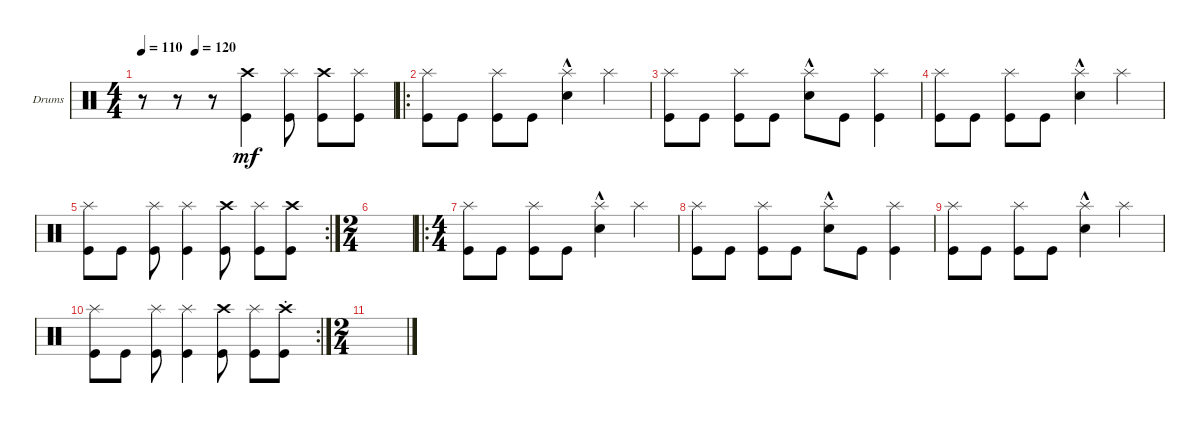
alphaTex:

\bracketExtendMode groupsimilarinstruments
\firstSystemTrackNameOrientation horizontal
\otherSystemsTrackNameOrientation horizontal
\track ("Drumkit" "Drums") {instrument percussion}
\staff {score}
\articulation defaults
\ts (4 4)
\tempo 110
\tempo (120 0.2125)
\clef neutral
\ks c
r.8{dy mf} r.8 r.8 ("Kick (hit)" "Crash high (hit)").4 ("Kick (hit)" "Splash (hit)").8 ("Kick (hit)" "Crash high (hit)").8 ("Kick (hit)" "Splash (hit)").8 |
\ro
("Kick (hit)" "Splash (hit)").8 "Kick (hit)".8 ("Kick (hit)" "Splash (hit)").8 "Kick (hit)".8 ("Splash (hit)" "Snare (hit) 2"{hac}).4 "Splash (hit)".4 |
("Kick (hit)" "Splash (hit)").8 "Kick (hit)".8 ("Kick (hit)" "Splash (hit)").8 "Kick (hit)".8 ("Splash (hit)" "Snare (hit) 2"{hac}).8 "Kick (hit)".8 ("Kick (hit)" "Splash (hit)").4 |
("Kick (hit)" "Splash (hit)").8 "Kick (hit)".8 ("Kick (hit)" "Splash (hit)").8 "Kick (hit)".8 ("Splash (hit)" "Snare (hit) 2"{hac}).4 "Splash (hit)".4 |
\rc 2
("Kick (hit)" "Splash (hit)").8 "Kick (hit)".8 ("Kick (hit)" "Splash (hit)").8 ("Kick (hit)" "Splash (hit)").4 ("Kick (hit)" "Crash high (hit)").8 ("Kick (hit)" "Splash (hit)").8 ("Kick (hit)" "Crash high (hit)").8 |
\ts (2 4)
|
\ro
\ts (4 4)
("Kick (hit)" "Splash (hit)").8 "Kick (hit)".8 ("Kick (hit)" "Splash (hit)").8 "Kick (hit)".8 ("Splash (hit)" "Snare (hit) 2"{hac}).4 "Splash (hit)".4 |
("Kick (hit)" "Splash (hit)").8 "Kick (hit)".8 ("Kick (hit)" "Splash (hit)").8 "Kick (hit)".8 ("Splash (hit)" "Snare (hit) 2"{hac}).8 "Kick (hit)".8 ("Kick (hit)" "Splash (hit)").4 |
("Kick (hit)" "Splash (hit)").8 "Kick (hit)".8 ("Kick (hit)" "Splash (hit)").8 "Kick (hit)".8 ("Splash (hit)" "Snare (hit) 2"{hac}).4 "Splash (hit)".4 |
\rc 2
("Kick (hit)" "Splash (hit)").8 "Kick (hit)".8 ("Kick (hit)" "Splash (hit)").8 ("Kick (hit)" "Splash (hit)").4 ("Kick (hit)" "Crash high (hit)").8 ("Kick (hit)" "Splash (hit)").8 ("Kick (hit)" "Crash high (hit)"{st}).8 |
\ts (2 4)
